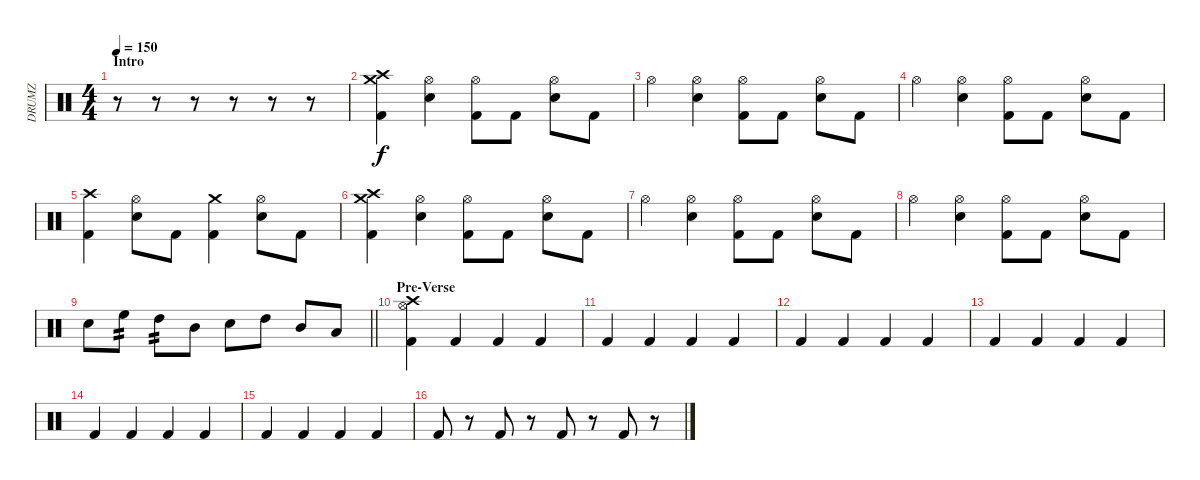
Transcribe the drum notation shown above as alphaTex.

\track ("DRUMZ" "DRUMZ") {instrument percussion}
\staff {score}
\articulation defaults
\ts (4 4)
\section ("" "Intro")
\tempo 150
\clef neutral
\ks c
r.8{dy f} r.8 r.8 r.8 r.8 r.8 |
("Crash medium (hit)" "Crash high (hit)" "Kick (hit) 2").4 ("Hi-Hat (open)" "Electric Snare (hit)").4 ("Hi-Hat (open)" "Kick (hit) 2").8 "Kick (hit) 2".8 ("Hi-Hat (open)" "Electric Snare (hit)").8 "Kick (hit) 2".8 |
"Hi-Hat (open)".4 ("Hi-Hat (open)" "Electric Snare (hit)").4 ("Hi-Hat (open)" "Kick (hit) 2").8 "Kick (hit) 2".8 ("Hi-Hat (open)" "Electric Snare (hit)").8 "Kick (hit) 2".8 |
"Hi-Hat (open)".4 ("Hi-Hat (open)" "Electric Snare (hit)").4 ("Hi-Hat (open)" "Kick (hit) 2").8 "Kick (hit) 2".8 ("Hi-Hat (open)" "Electric Snare (hit)").8 "Kick (hit) 2".8 |
("Crash high (hit)" "Kick (hit) 2").4 ("Hi-Hat (open)" "Electric Snare (hit)").8 "Kick (hit) 2".8 ("Crash medium (hit)" "Kick (hit) 2").4 ("Hi-Hat (open)" "Electric Snare (hit)").8 "Kick (hit) 2".8 |
("Crash medium (hit)" "Crash high (hit)" "Kick (hit) 2").4 ("Hi-Hat (open)" "Electric Snare (hit)").4 ("Hi-Hat (open)" "Kick (hit) 2").8 "Kick (hit) 2".8 ("Hi-Hat (open)" "Electric Snare (hit)").8 "Kick (hit) 2".8 |
"Hi-Hat (open)".4 ("Hi-Hat (open)" "Electric Snare (hit)").4 ("Hi-Hat (open)" "Kick (hit) 2").8 "Kick (hit) 2".8 ("Hi-Hat (open)" "Electric Snare (hit)").8 "Kick (hit) 2".8 |
"Hi-Hat (open)".4 ("Hi-Hat (open)" "Electric Snare (hit)").4 ("Hi-Hat (open)" "Kick (hit) 2").8 "Kick (hit) 2".8 ("Hi-Hat (open)" "Electric Snare (hit)").8 "Kick (hit) 2".8 |
\barLineRight lightlight "Electric Snare (hit)".8 "High Floor Tom (hit)".8{tp 2} "High Tom (hit)".8{tp 2} "Mid Tom (hit)".8 "Electric Snare (hit)".8 "High Tom (hit)".8 "Mid Tom (hit)".8 "Low Tom (hit)".8
|
\section ("" "Pre-Verse")
("Crash high (hit)" "Hi-Hat (open)" "Kick (hit) 2").4{volume 7} "Kick (hit) 2".4 "Kick (hit) 2".4 "Kick (hit) 2".4 |
"Kick (hit) 2".4 "Kick (hit) 2".4 "Kick (hit) 2".4 "Kick (hit) 2".4 |
"Kick (hit) 2".4 "Kick (hit) 2".4 "Kick (hit) 2".4 "Kick (hit) 2".4 |
"Kick (hit) 2".4 "Kick (hit) 2".4 "Kick (hit) 2".4 "Kick (hit) 2".4 |
"Kick (hit) 2".4 "Kick (hit) 2".4 "Kick (hit) 2".4 "Kick (hit) 2".4 |
"Kick (hit) 2".4 "Kick (hit) 2".4 "Kick (hit) 2".4 "Kick (hit) 2".4 |
"Kick (hit) 2".8 r.8 "Kick (hit) 2".8 r.8 "Kick (hit) 2".8 r.8 "Kick (hit) 2".8 r.8
